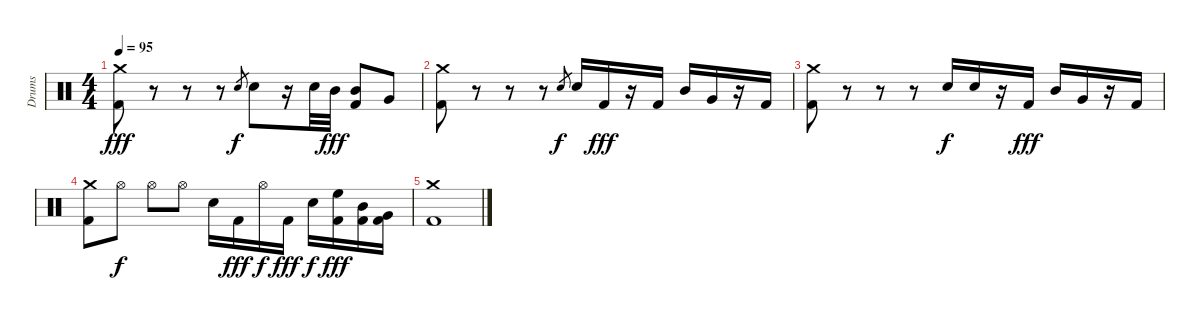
\track ("Drums" "Drums") {instrument percussion}
\staff {score}
\articulation defaults
\ts (4 4)
\tempo 95
\clef neutral
\ks c
("Crash medium (hit)" "Kick (hit) 2").8{dy fff} r.8 r.8 r.8 "Snare (hit) 2".8{gr dy f} "Snare (hit) 2".8 r.16 "Snare (hit) 2".32 "Mid Tom (hit)".32{dy fff} ("Mid Tom (hit)" "Kick (hit) 2").8 "Very Low Tom (hit)".8 |
("Crash medium (hit)" "Kick (hit) 2").8 r.8 r.8 r.8 "Snare (hit) 2".8{gr dy f} "Snare (hit) 2".16 "Kick (hit) 2".16{dy fff} r.16 "Kick (hit) 2".16 "Mid Tom (hit)".16 "Very Low Tom (hit)".16 r.16 "Kick (hit) 2".16 |
("Crash medium (hit)" "Kick (hit) 2").8 r.8 r.8 r.8 "Snare (hit) 2".16{dy f} "Snare (hit) 2".16 r.16 "Kick (hit) 2".16{dy fff} "Mid Tom (hit)".16 "Very Low Tom (hit)".16 r.16 "Kick (hit) 2".16 |
("Crash medium (hit)" "Kick (hit) 2").8 "Hi-Hat (open)".8{dy f} "Hi-Hat (open)".8 "Hi-Hat (open)".8 "Snare (hit) 2".16 "Kick (hit) 2".16{dy fff} "Hi-Hat (open)".16{dy f} "Kick (hit) 2".16{dy fff} "Snare (hit) 2".16{dy f} ("High Floor Tom (hit)" "Kick (hit) 2").16{dy fff} ("Mid Tom (hit)" "Kick (hit) 2").16 ("Very Low Tom (hit)" "Kick (hit) 2").16 |
("Crash medium (hit)" "Kick (hit) 2").1
